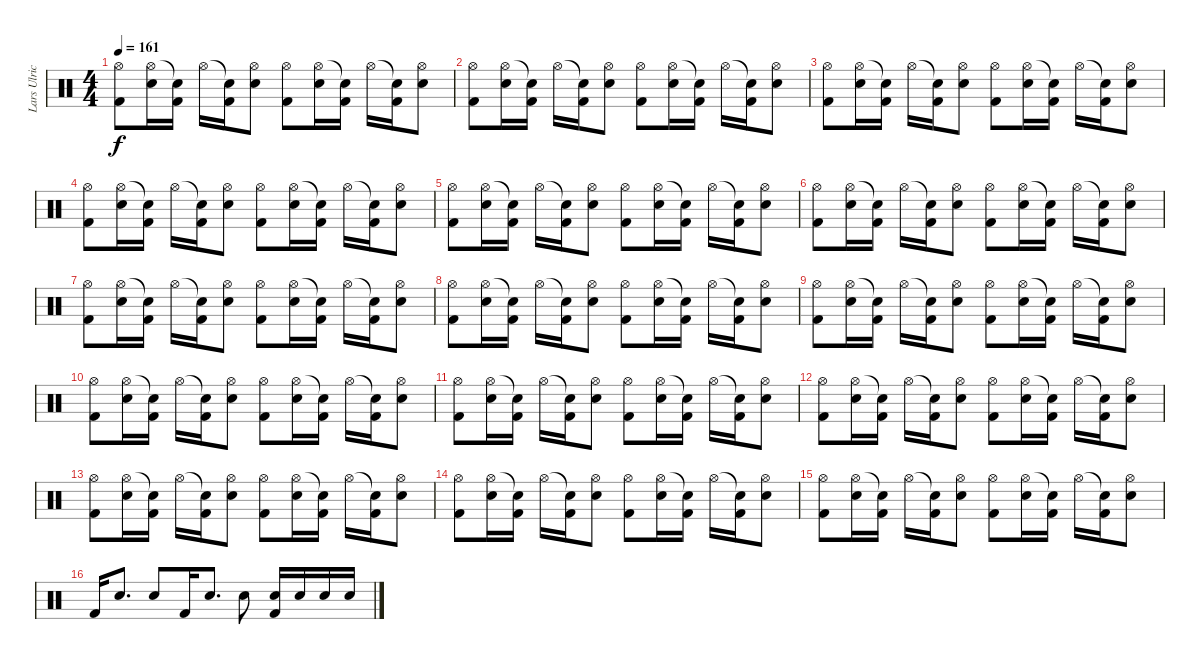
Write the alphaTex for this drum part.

\track ("Lars Ulrich" "Lars Ulric") {instrument percussion}
\staff {score}
\articulation defaults
\ts (4 4)
\tempo 161
\clef neutral
\ks c
("Hi-Hat (open)" "Kick (hit) 2").8{dy f} ("Hi-Hat (open)" "Electric Snare (hit)").16 ("Snare (hit)"{t} "Kick (hit) 2").16 "Hi-Hat (open)".16 ("Snare (hit)"{t} "Kick (hit) 2").16 ("Hi-Hat (open)" "Electric Snare (hit)").8 ("Hi-Hat (open)" "Kick (hit) 2").8 ("Hi-Hat (open)" "Electric Snare (hit)").16 ("Snare (hit)"{t} "Kick (hit) 2").16 "Hi-Hat (open)".16 ("Snare (hit)"{t} "Kick (hit) 2").16 ("Hi-Hat (open)" "Electric Snare (hit)").8 |
("Hi-Hat (open)" "Kick (hit) 2").8 ("Hi-Hat (open)" "Electric Snare (hit)").16 ("Snare (hit)"{t} "Kick (hit) 2").16 "Hi-Hat (open)".16 ("Snare (hit)"{t} "Kick (hit) 2").16 ("Hi-Hat (open)" "Electric Snare (hit)").8 ("Hi-Hat (open)" "Kick (hit) 2").8 ("Hi-Hat (open)" "Electric Snare (hit)").16 ("Snare (hit)"{t} "Kick (hit) 2").16 "Hi-Hat (open)".16 ("Snare (hit)"{t} "Kick (hit) 2").16 ("Hi-Hat (open)" "Electric Snare (hit)").8 |
("Hi-Hat (open)" "Kick (hit) 2").8 ("Hi-Hat (open)" "Electric Snare (hit)").16 ("Snare (hit)"{t} "Kick (hit) 2").16 "Hi-Hat (open)".16 ("Snare (hit)"{t} "Kick (hit) 2").16 ("Hi-Hat (open)" "Electric Snare (hit)").8 ("Hi-Hat (open)" "Kick (hit) 2").8 ("Hi-Hat (open)" "Electric Snare (hit)").16 ("Snare (hit)"{t} "Kick (hit) 2").16 "Hi-Hat (open)".16 ("Snare (hit)"{t} "Kick (hit) 2").16 ("Hi-Hat (open)" "Electric Snare (hit)").8 |
("Hi-Hat (open)" "Kick (hit) 2").8 ("Hi-Hat (open)" "Electric Snare (hit)").16 ("Snare (hit)"{t} "Kick (hit) 2").16 "Hi-Hat (open)".16 ("Snare (hit)"{t} "Kick (hit) 2").16 ("Hi-Hat (open)" "Electric Snare (hit)").8 ("Hi-Hat (open)" "Kick (hit) 2").8 ("Hi-Hat (open)" "Electric Snare (hit)").16 ("Snare (hit)"{t} "Kick (hit) 2").16 "Hi-Hat (open)".16 ("Snare (hit)"{t} "Kick (hit) 2").16 ("Hi-Hat (open)" "Electric Snare (hit)").8 |
("Hi-Hat (open)" "Kick (hit) 2").8 ("Hi-Hat (open)" "Electric Snare (hit)").16 ("Snare (hit)"{t} "Kick (hit) 2").16 "Hi-Hat (open)".16 ("Snare (hit)"{t} "Kick (hit) 2").16 ("Hi-Hat (open)" "Electric Snare (hit)").8 ("Hi-Hat (open)" "Kick (hit) 2").8 ("Hi-Hat (open)" "Electric Snare (hit)").16 ("Snare (hit)"{t} "Kick (hit) 2").16 "Hi-Hat (open)".16 ("Snare (hit)"{t} "Kick (hit) 2").16 ("Hi-Hat (open)" "Electric Snare (hit)").8 |
("Hi-Hat (open)" "Kick (hit) 2").8 ("Hi-Hat (open)" "Electric Snare (hit)").16 ("Snare (hit)"{t} "Kick (hit) 2").16 "Hi-Hat (open)".16 ("Snare (hit)"{t} "Kick (hit) 2").16 ("Hi-Hat (open)" "Electric Snare (hit)").8 ("Hi-Hat (open)" "Kick (hit) 2").8 ("Hi-Hat (open)" "Electric Snare (hit)").16 ("Snare (hit)"{t} "Kick (hit) 2").16 "Hi-Hat (open)".16 ("Snare (hit)"{t} "Kick (hit) 2").16 ("Hi-Hat (open)" "Electric Snare (hit)").8 |
("Hi-Hat (open)" "Kick (hit) 2").8 ("Hi-Hat (open)" "Electric Snare (hit)").16 ("Snare (hit)"{t} "Kick (hit) 2").16 "Hi-Hat (open)".16 ("Snare (hit)"{t} "Kick (hit) 2").16 ("Hi-Hat (open)" "Electric Snare (hit)").8 ("Hi-Hat (open)" "Kick (hit) 2").8 ("Hi-Hat (open)" "Electric Snare (hit)").16 ("Snare (hit)"{t} "Kick (hit) 2").16 "Hi-Hat (open)".16 ("Snare (hit)"{t} "Kick (hit) 2").16 ("Hi-Hat (open)" "Electric Snare (hit)").8 |
("Hi-Hat (open)" "Kick (hit) 2").8 ("Hi-Hat (open)" "Electric Snare (hit)").16 ("Snare (hit)"{t} "Kick (hit) 2").16 "Hi-Hat (open)".16 ("Snare (hit)"{t} "Kick (hit) 2").16 ("Hi-Hat (open)" "Electric Snare (hit)").8 ("Hi-Hat (open)" "Kick (hit) 2").8 ("Hi-Hat (open)" "Electric Snare (hit)").16 ("Snare (hit)"{t} "Kick (hit) 2").16 "Hi-Hat (open)".16 ("Snare (hit)"{t} "Kick (hit) 2").16 ("Hi-Hat (open)" "Electric Snare (hit)").8 |
("Hi-Hat (open)" "Kick (hit) 2").8 ("Hi-Hat (open)" "Electric Snare (hit)").16 ("Snare (hit)"{t} "Kick (hit) 2").16 "Hi-Hat (open)".16 ("Snare (hit)"{t} "Kick (hit) 2").16 ("Hi-Hat (open)" "Electric Snare (hit)").8 ("Hi-Hat (open)" "Kick (hit) 2").8 ("Hi-Hat (open)" "Electric Snare (hit)").16 ("Snare (hit)"{t} "Kick (hit) 2").16 "Hi-Hat (open)".16 ("Snare (hit)"{t} "Kick (hit) 2").16 ("Hi-Hat (open)" "Electric Snare (hit)").8 |
("Hi-Hat (open)" "Kick (hit) 2").8 ("Hi-Hat (open)" "Electric Snare (hit)").16 ("Snare (hit)"{t} "Kick (hit) 2").16 "Hi-Hat (open)".16 ("Snare (hit)"{t} "Kick (hit) 2").16 ("Hi-Hat (open)" "Electric Snare (hit)").8 ("Hi-Hat (open)" "Kick (hit) 2").8 ("Hi-Hat (open)" "Electric Snare (hit)").16 ("Snare (hit)"{t} "Kick (hit) 2").16 "Hi-Hat (open)".16 ("Snare (hit)"{t} "Kick (hit) 2").16 ("Hi-Hat (open)" "Electric Snare (hit)").8 |
("Hi-Hat (open)" "Kick (hit) 2").8 ("Hi-Hat (open)" "Electric Snare (hit)").16 ("Snare (hit)"{t} "Kick (hit) 2").16 "Hi-Hat (open)".16 ("Snare (hit)"{t} "Kick (hit) 2").16 ("Hi-Hat (open)" "Electric Snare (hit)").8 ("Hi-Hat (open)" "Kick (hit) 2").8 ("Hi-Hat (open)" "Electric Snare (hit)").16 ("Snare (hit)"{t} "Kick (hit) 2").16 "Hi-Hat (open)".16 ("Snare (hit)"{t} "Kick (hit) 2").16 ("Hi-Hat (open)" "Electric Snare (hit)").8 |
("Hi-Hat (open)" "Kick (hit) 2").8 ("Hi-Hat (open)" "Electric Snare (hit)").16 ("Snare (hit)"{t} "Kick (hit) 2").16 "Hi-Hat (open)".16 ("Snare (hit)"{t} "Kick (hit) 2").16 ("Hi-Hat (open)" "Electric Snare (hit)").8 ("Hi-Hat (open)" "Kick (hit) 2").8 ("Hi-Hat (open)" "Electric Snare (hit)").16 ("Snare (hit)"{t} "Kick (hit) 2").16 "Hi-Hat (open)".16 ("Snare (hit)"{t} "Kick (hit) 2").16 ("Hi-Hat (open)" "Electric Snare (hit)").8 |
("Hi-Hat (open)" "Kick (hit) 2").8 ("Hi-Hat (open)" "Electric Snare (hit)").16 ("Snare (hit)"{t} "Kick (hit) 2").16 "Hi-Hat (open)".16 ("Snare (hit)"{t} "Kick (hit) 2").16 ("Hi-Hat (open)" "Electric Snare (hit)").8 ("Hi-Hat (open)" "Kick (hit) 2").8 ("Hi-Hat (open)" "Electric Snare (hit)").16 ("Snare (hit)"{t} "Kick (hit) 2").16 "Hi-Hat (open)".16 ("Snare (hit)"{t} "Kick (hit) 2").16 ("Hi-Hat (open)" "Electric Snare (hit)").8 |
("Hi-Hat (open)" "Kick (hit) 2").8 ("Hi-Hat (open)" "Electric Snare (hit)").16 ("Snare (hit)"{t} "Kick (hit) 2").16 "Hi-Hat (open)".16 ("Snare (hit)"{t} "Kick (hit) 2").16 ("Hi-Hat (open)" "Electric Snare (hit)").8 ("Hi-Hat (open)" "Kick (hit) 2").8 ("Hi-Hat (open)" "Electric Snare (hit)").16 ("Snare (hit)"{t} "Kick (hit) 2").16 "Hi-Hat (open)".16 ("Snare (hit)"{t} "Kick (hit) 2").16 ("Hi-Hat (open)" "Electric Snare (hit)").8 |
("Hi-Hat (open)" "Kick (hit) 2").8 ("Hi-Hat (open)" "Electric Snare (hit)").16 ("Snare (hit)"{t} "Kick (hit) 2").16 "Hi-Hat (open)".16 ("Snare (hit)"{t} "Kick (hit) 2").16 ("Hi-Hat (open)" "Electric Snare (hit)").8 ("Hi-Hat (open)" "Kick (hit) 2").8 ("Hi-Hat (open)" "Electric Snare (hit)").16 ("Snare (hit)"{t} "Kick (hit) 2").16 "Hi-Hat (open)".16 ("Snare (hit)"{t} "Kick (hit) 2").16 ("Hi-Hat (open)" "Electric Snare (hit)").8 |
"Kick (hit) 2".16 "Electric Snare (hit)".8{d} "Electric Snare (hit)".8 "Kick (hit) 2".16 "Electric Snare (hit)".8{d} "Electric Snare (hit)".8 ("Electric Snare (hit)" "Kick (hit) 2").16 "Electric Snare (hit)".16 "Electric Snare (hit)".16 "Electric Snare (hit)".16
